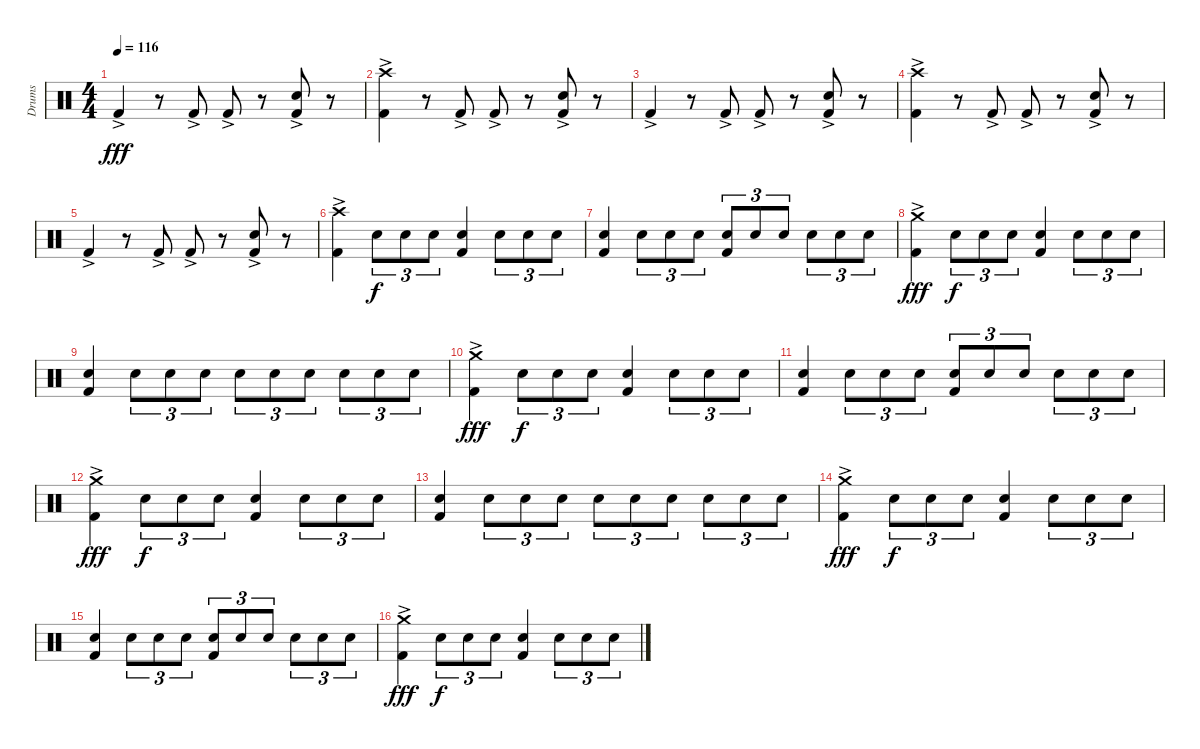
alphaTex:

\track ("Drums" "Drums") {instrument percussion}
\staff {score}
\articulation defaults
\ts (4 4)
\tempo 116
\clef neutral
\ks c "Kick (hit) 2"{ac}.4{dy fff}
r.8 "Kick (hit) 2"{ac}.8 "Kick (hit) 2"{ac}.8 r.8 ("Electric Snare (hit)"{ac} "Kick (hit) 2"{ac}).8 r.8 |
("Crash high (hit)" "Kick (hit) 2"{ac}).4 r.8 "Kick (hit) 2"{ac}.8 "Kick (hit) 2"{ac}.8 r.8 ("Electric Snare (hit)"{ac} "Kick (hit) 2"{ac}).8 r.8 |
"Kick (hit) 2"{ac}.4 r.8 "Kick (hit) 2"{ac}.8 "Kick (hit) 2"{ac}.8 r.8 ("Electric Snare (hit)"{ac} "Kick (hit) 2"{ac}).8 r.8 |
("Crash high (hit)" "Kick (hit) 2"{ac}).4 r.8 "Kick (hit) 2"{ac}.8 "Kick (hit) 2"{ac}.8 r.8 ("Electric Snare (hit)"{ac} "Kick (hit) 2"{ac}).8 r.8 |
"Kick (hit) 2"{ac}.4 r.8 "Kick (hit) 2"{ac}.8 "Kick (hit) 2"{ac}.8 r.8 ("Electric Snare (hit)"{ac} "Kick (hit) 2"{ac}).8 r.8 |
("Crash high (hit)"{ac} "Kick (hit) 2"{ac}).4 "Electric Snare (hit)".8{tu (3 2) dy f} "Electric Snare (hit)".8{tu (3 2)} "Electric Snare (hit)".8{tu (3 2)} ("Electric Snare (hit)" "Kick (hit) 2").4 "Electric Snare (hit)".8{tu (3 2)} "Electric Snare (hit)".8{tu (3 2)} "Electric Snare (hit)".8{tu (3 2)} |
("Electric Snare (hit)" "Kick (hit) 2").4 "Electric Snare (hit)".8{tu (3 2)} "Electric Snare (hit)".8{tu (3 2)} "Electric Snare (hit)".8{tu (3 2)} ("Electric Snare (hit)" "Kick (hit) 2").8{tu (3 2)} "Electric Snare (hit)".8{tu (3 2)} "Electric Snare (hit)".8{tu (3 2)} "Electric Snare (hit)".8{tu (3 2)} "Electric Snare (hit)".8{tu (3 2)} "Electric Snare (hit)".8{tu (3 2)} |
("Crash medium (hit)" "Kick (hit) 2"{ac}).4{dy fff} "Electric Snare (hit)".8{tu (3 2) dy f} "Electric Snare (hit)".8{tu (3 2)} "Electric Snare (hit)".8{tu (3 2)} ("Electric Snare (hit)" "Kick (hit) 2").4 "Electric Snare (hit)".8{tu (3 2)} "Electric Snare (hit)".8{tu (3 2)} "Electric Snare (hit)".8{tu (3 2)} |
("Electric Snare (hit)" "Kick (hit) 2").4 "Electric Snare (hit)".8{tu (3 2)} "Electric Snare (hit)".8{tu (3 2)} "Electric Snare (hit)".8{tu (3 2)} "Electric Snare (hit)".8{tu (3 2)} "Electric Snare (hit)".8{tu (3 2)} "Electric Snare (hit)".8{tu (3 2)} "Electric Snare (hit)".8{tu (3 2)} "Electric Snare (hit)".8{tu (3 2)} "Electric Snare (hit)".8{tu (3 2)} |
("Crash medium (hit)" "Kick (hit) 2"{ac}).4{dy fff} "Electric Snare (hit)".8{tu (3 2) dy f} "Electric Snare (hit)".8{tu (3 2)} "Electric Snare (hit)".8{tu (3 2)} ("Electric Snare (hit)" "Kick (hit) 2").4 "Electric Snare (hit)".8{tu (3 2)} "Electric Snare (hit)".8{tu (3 2)} "Electric Snare (hit)".8{tu (3 2)} |
("Electric Snare (hit)" "Kick (hit) 2").4 "Electric Snare (hit)".8{tu (3 2)} "Electric Snare (hit)".8{tu (3 2)} "Electric Snare (hit)".8{tu (3 2)} ("Electric Snare (hit)" "Kick (hit) 2").8{tu (3 2)} "Electric Snare (hit)".8{tu (3 2)} "Electric Snare (hit)".8{tu (3 2)} "Electric Snare (hit)".8{tu (3 2)} "Electric Snare (hit)".8{tu (3 2)} "Electric Snare (hit)".8{tu (3 2)} |
("Crash medium (hit)" "Kick (hit) 2"{ac}).4{dy fff} "Electric Snare (hit)".8{tu (3 2) dy f} "Electric Snare (hit)".8{tu (3 2)} "Electric Snare (hit)".8{tu (3 2)} ("Electric Snare (hit)" "Kick (hit) 2").4 "Electric Snare (hit)".8{tu (3 2)} "Electric Snare (hit)".8{tu (3 2)} "Electric Snare (hit)".8{tu (3 2)} |
("Electric Snare (hit)" "Kick (hit) 2").4 "Electric Snare (hit)".8{tu (3 2)} "Electric Snare (hit)".8{tu (3 2)} "Electric Snare (hit)".8{tu (3 2)} "Electric Snare (hit)".8{tu (3 2)} "Electric Snare (hit)".8{tu (3 2)} "Electric Snare (hit)".8{tu (3 2)} "Electric Snare (hit)".8{tu (3 2)} "Electric Snare (hit)".8{tu (3 2)} "Electric Snare (hit)".8{tu (3 2)} |
("Crash medium (hit)" "Kick (hit) 2"{ac}).4{dy fff} "Electric Snare (hit)".8{tu (3 2) dy f} "Electric Snare (hit)".8{tu (3 2)} "Electric Snare (hit)".8{tu (3 2)} ("Electric Snare (hit)" "Kick (hit) 2").4 "Electric Snare (hit)".8{tu (3 2)} "Electric Snare (hit)".8{tu (3 2)} "Electric Snare (hit)".8{tu (3 2)} |
("Electric Snare (hit)" "Kick (hit) 2").4 "Electric Snare (hit)".8{tu (3 2)} "Electric Snare (hit)".8{tu (3 2)} "Electric Snare (hit)".8{tu (3 2)} ("Electric Snare (hit)" "Kick (hit) 2").8{tu (3 2)} "Electric Snare (hit)".8{tu (3 2)} "Electric Snare (hit)".8{tu (3 2)} "Electric Snare (hit)".8{tu (3 2)} "Electric Snare (hit)".8{tu (3 2)} "Electric Snare (hit)".8{tu (3 2)} |
("Crash medium (hit)" "Kick (hit) 2"{ac}).4{dy fff} "Electric Snare (hit)".8{tu (3 2) dy f} "Electric Snare (hit)".8{tu (3 2)} "Electric Snare (hit)".8{tu (3 2)} ("Electric Snare (hit)" "Kick (hit) 2").4 "Electric Snare (hit)".8{tu (3 2)} "Electric Snare (hit)".8{tu (3 2)} "Electric Snare (hit)".8{tu (3 2)}
